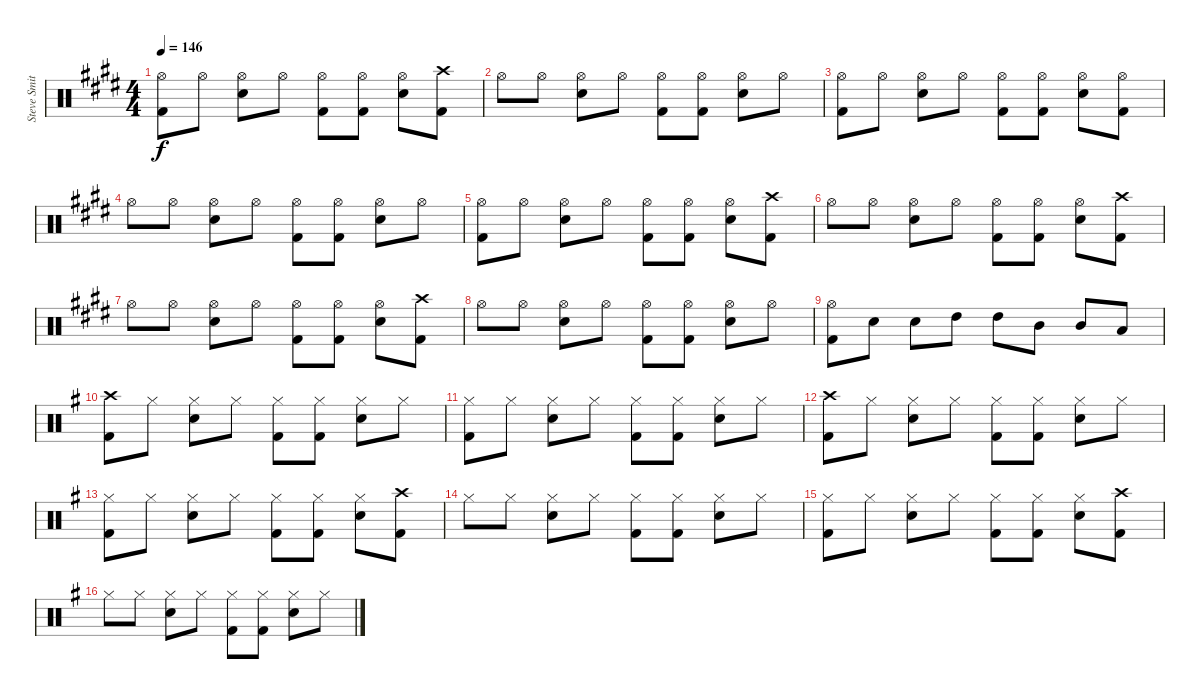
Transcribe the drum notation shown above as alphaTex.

\track ("Steve Smith" "Steve Smit") {instrument percussion}
\staff {score}
\articulation defaults
\ts (4 4)
\tempo 146
\clef neutral
\ks e
("Hi-Hat (open)" "Kick (hit) 2").8{dy f} "Hi-Hat (open)".8 ("Hi-Hat (open)" "Snare (hit) 2").8 "Hi-Hat (open)".8 ("Hi-Hat (open)" "Kick (hit) 2").8 ("Hi-Hat (open)" "Kick (hit) 2").8 ("Hi-Hat (open)" "Snare (hit) 2").8 ("Crash high (hit)" "Kick (hit) 2").8 |
"Hi-Hat (open)".8 "Hi-Hat (open)".8 ("Hi-Hat (open)" "Snare (hit) 2").8 "Hi-Hat (open)".8 ("Hi-Hat (open)" "Kick (hit) 2").8 ("Hi-Hat (open)" "Kick (hit) 2").8 ("Hi-Hat (open)" "Snare (hit) 2").8 "Hi-Hat (open)".8 |
("Hi-Hat (open)" "Kick (hit) 2").8 "Hi-Hat (open)".8 ("Hi-Hat (open)" "Snare (hit) 2").8 "Hi-Hat (open)".8 ("Hi-Hat (open)" "Kick (hit) 2").8 ("Hi-Hat (open)" "Kick (hit) 2").8 ("Hi-Hat (open)" "Snare (hit) 2").8 ("Hi-Hat (open)" "Kick (hit) 2").8 |
"Hi-Hat (open)".8 "Hi-Hat (open)".8 ("Hi-Hat (open)" "Snare (hit) 2").8 "Hi-Hat (open)".8 ("Hi-Hat (open)" "Kick (hit) 2").8 ("Hi-Hat (open)" "Kick (hit) 2").8 ("Hi-Hat (open)" "Snare (hit) 2").8 "Hi-Hat (open)".8 |
("Hi-Hat (open)" "Kick (hit) 2").8 "Hi-Hat (open)".8 ("Hi-Hat (open)" "Snare (hit) 2").8 "Hi-Hat (open)".8 ("Hi-Hat (open)" "Kick (hit) 2").8 ("Hi-Hat (open)" "Kick (hit) 2").8 ("Hi-Hat (open)" "Snare (hit) 2").8 ("Crash high (hit)" "Kick (hit) 2").8 |
"Hi-Hat (open)".8 "Hi-Hat (open)".8 ("Hi-Hat (open)" "Snare (hit) 2").8 "Hi-Hat (open)".8 ("Hi-Hat (open)" "Kick (hit) 2").8 ("Hi-Hat (open)" "Kick (hit) 2").8 ("Hi-Hat (open)" "Snare (hit) 2").8 ("Crash high (hit)" "Kick (hit) 2").8 |
"Hi-Hat (open)".8 "Hi-Hat (open)".8 ("Hi-Hat (open)" "Snare (hit) 2").8 "Hi-Hat (open)".8 ("Hi-Hat (open)" "Kick (hit) 2").8 ("Hi-Hat (open)" "Kick (hit) 2").8 ("Hi-Hat (open)" "Snare (hit) 2").8 ("Crash high (hit)" "Kick (hit) 2").8 |
"Hi-Hat (open)".8 "Hi-Hat (open)".8 ("Hi-Hat (open)" "Snare (hit) 2").8 "Hi-Hat (open)".8 ("Hi-Hat (open)" "Kick (hit) 2").8 ("Hi-Hat (open)" "Kick (hit) 2").8 ("Hi-Hat (open)" "Snare (hit) 2").8 "Hi-Hat (open)".8 |
("Hi-Hat (open)" "Kick (hit) 2").8 "Snare (hit) 2".8 "Snare (hit) 2".8 "High Tom (hit)".8 "High Tom (hit)".8 "Mid Tom (hit)".8 "Mid Tom (hit)".8 "Low Tom (hit)".8 |
\ks g
("Crash high (hit)" "Kick (hit) 2").8 "Hi-Hat (closed)".8 ("Hi-Hat (closed)" "Snare (hit) 2").8 "Hi-Hat (closed)".8 ("Hi-Hat (closed)" "Kick (hit) 2").8 ("Hi-Hat (closed)" "Kick (hit) 2").8 ("Hi-Hat (closed)" "Snare (hit) 2").8 "Hi-Hat (closed)".8 |
("Hi-Hat (closed)" "Kick (hit) 2").8 "Hi-Hat (closed)".8 ("Hi-Hat (closed)" "Snare (hit) 2").8 "Hi-Hat (closed)".8 ("Hi-Hat (closed)" "Kick (hit) 2").8 ("Hi-Hat (closed)" "Kick (hit) 2").8 ("Hi-Hat (closed)" "Snare (hit) 2").8 "Hi-Hat (closed)".8 |
("Crash high (hit)" "Kick (hit) 2").8 "Hi-Hat (closed)".8 ("Hi-Hat (closed)" "Snare (hit) 2").8 "Hi-Hat (closed)".8 ("Hi-Hat (closed)" "Kick (hit) 2").8 ("Hi-Hat (closed)" "Kick (hit) 2").8 ("Hi-Hat (closed)" "Snare (hit) 2").8 "Hi-Hat (closed)".8 |
("Hi-Hat (closed)" "Kick (hit) 2").8 "Hi-Hat (closed)".8 ("Hi-Hat (closed)" "Snare (hit) 2").8 "Hi-Hat (closed)".8 ("Hi-Hat (closed)" "Kick (hit) 2").8 ("Hi-Hat (closed)" "Kick (hit) 2").8 ("Hi-Hat (closed)" "Snare (hit) 2").8 ("Crash high (hit)" "Kick (hit) 2").8 |
"Hi-Hat (closed)".8 "Hi-Hat (closed)".8 ("Hi-Hat (closed)" "Snare (hit) 2").8 "Hi-Hat (closed)".8 ("Hi-Hat (closed)" "Kick (hit) 2").8 ("Hi-Hat (closed)" "Kick (hit) 2").8 ("Hi-Hat (closed)" "Snare (hit) 2").8 "Hi-Hat (closed)".8 |
("Hi-Hat (closed)" "Kick (hit) 2").8 "Hi-Hat (closed)".8 ("Hi-Hat (closed)" "Snare (hit) 2").8 "Hi-Hat (closed)".8 ("Hi-Hat (closed)" "Kick (hit) 2").8 ("Hi-Hat (closed)" "Kick (hit) 2").8 ("Hi-Hat (closed)" "Snare (hit) 2").8 ("Crash high (hit)" "Kick (hit) 2").8 |
"Hi-Hat (closed)".8 "Hi-Hat (closed)".8 ("Hi-Hat (closed)" "Snare (hit) 2").8 "Hi-Hat (closed)".8 ("Hi-Hat (closed)" "Kick (hit) 2").8 ("Hi-Hat (closed)" "Kick (hit) 2").8 ("Hi-Hat (closed)" "Snare (hit) 2").8 "Hi-Hat (closed)".8
